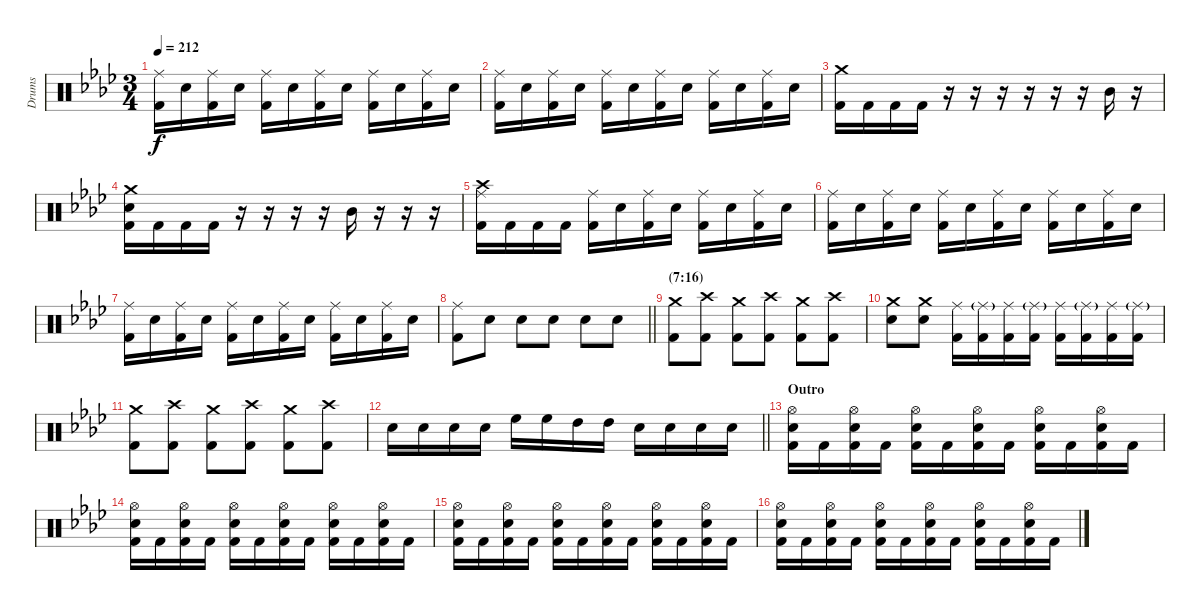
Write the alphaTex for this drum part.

\bracketExtendMode groupsimilarinstruments
\otherSystemsTrackNameOrientation horizontal
\track ("Guyot Begin-Benoit" "Drums") {instrument percussion}
\staff {score}
\articulation defaults
\ts (3 4)
\tempo 212
\clef neutral
\ks ab
("Ride (middle)"{acc forcenatural} "Kick (hit) 2"{acc forcenatural}).16{dy f beam Down} "Snare (hit) 2"{acc forcenatural}.16{beam Down} ("Ride (middle)"{acc forcenatural} "Kick (hit) 2"{acc forcenatural}).16{beam Down} "Snare (hit) 2"{acc forcenatural}.16{beam Down} ("Ride (middle)"{acc forcenatural} "Kick (hit) 2"{acc forcenatural}).16{beam Down} "Snare (hit) 2"{acc forcenatural}.16{beam Down} ("Ride (middle)"{acc forcenatural} "Kick (hit) 2"{acc forcenatural}).16{beam Down} "Snare (hit) 2"{acc forcenatural}.16{beam Down} ("Ride (middle)"{acc forcenatural} "Kick (hit) 2"{acc forcenatural}).16{beam Down} "Snare (hit) 2"{acc forcenatural}.16{beam Down} ("Ride (middle)"{acc forcenatural} "Kick (hit) 2"{acc forcenatural}).16{beam Down} "Snare (hit) 2"{acc forcenatural}.16{beam Down} |
("Ride (middle)"{acc forcenatural} "Kick (hit) 2"{acc forcenatural}).16{beam Down} "Snare (hit) 2"{acc forcenatural}.16{beam Down} ("Ride (middle)"{acc forcenatural} "Kick (hit) 2"{acc forcenatural}).16{beam Down} "Snare (hit) 2"{acc forcenatural}.16{beam Down} ("Ride (middle)"{acc forcenatural} "Kick (hit) 2"{acc forcenatural}).16{beam Down} "Snare (hit) 2"{acc forcenatural}.16{beam Down} ("Ride (middle)"{acc forcenatural} "Kick (hit) 2"{acc forcenatural}).16{beam Down} "Snare (hit) 2"{acc forcenatural}.16{beam Down} ("Ride (middle)"{acc forcenatural} "Kick (hit) 2"{acc forcenatural}).16{beam Down} "Snare (hit) 2"{acc forcenatural}.16{beam Down} ("Ride (middle)"{acc forcenatural} "Kick (hit) 2"{acc forcenatural}).16{beam Down} "Snare (hit) 2"{acc forcenatural}.16{beam Down} |
("Crash medium (hit)"{acc forcenatural} "Kick (hit) 2"{acc forcenatural}).16{beam Down} "Kick (hit) 2"{acc forcenatural}.16{beam Down} "Kick (hit) 2"{acc forcenatural}.16{beam Down} "Kick (hit) 2"{acc forcenatural}.16{beam Down} r.16{beam Down} r.16{beam Down} r.16{beam Down} r.16{beam Down} r.16{beam Down} r.16{beam Down} "Mid Tom (hit)"{acc forcenatural}.16{beam Down} r.16{beam Down} |
("Crash medium (hit)"{acc forcenatural} "Snare (hit) 2"{acc forcenatural} "Kick (hit) 2"{acc forcenatural}).16{beam Down} "Kick (hit) 2"{acc forcenatural}.16{beam Down} "Kick (hit) 2"{acc forcenatural}.16{beam Down} "Kick (hit) 2"{acc forcenatural}.16{beam Down} r.16{beam Down} r.16{beam Down} r.16{beam Down} r.16{beam Down} "Mid Tom (hit)"{acc forcenatural}.16{beam Down} r.16{beam Down} r.16{beam Down} r.16{beam Down} |
("Ride (middle)"{acc forcenatural} "Crash high (hit)"{acc forcenatural} "Kick (hit) 2"{acc forcenatural}).16{beam Down} "Kick (hit) 2"{acc forcenatural}.16{beam Down} "Kick (hit) 2"{acc forcenatural}.16{beam Down} "Kick (hit) 2"{acc forcenatural}.16{beam Down} ("Ride (middle)"{acc forcenatural} "Kick (hit) 2"{acc forcenatural}).16{beam Down} "Snare (hit) 2"{acc forcenatural}.16{beam Down} ("Ride (middle)"{acc forcenatural} "Kick (hit) 2"{acc forcenatural}).16{beam Down} "Snare (hit) 2"{acc forcenatural}.16{beam Down} ("Ride (middle)"{acc forcenatural} "Kick (hit) 2"{acc forcenatural}).16{beam Down} "Snare (hit) 2"{acc forcenatural}.16{beam Down} ("Ride (middle)"{acc forcenatural} "Kick (hit) 2"{acc forcenatural}).16{beam Down} "Snare (hit) 2"{acc forcenatural}.16{beam Down} |
("Ride (middle)"{acc forcenatural} "Kick (hit) 2"{acc forcenatural}).16{beam Down} "Snare (hit) 2"{acc forcenatural}.16{beam Down} ("Ride (middle)"{acc forcenatural} "Kick (hit) 2"{acc forcenatural}).16{beam Down} "Snare (hit) 2"{acc forcenatural}.16{beam Down} ("Ride (middle)"{acc forcenatural} "Kick (hit) 2"{acc forcenatural}).16{beam Down} "Snare (hit) 2"{acc forcenatural}.16{beam Down} ("Ride (middle)"{acc forcenatural} "Kick (hit) 2"{acc forcenatural}).16{beam Down} "Snare (hit) 2"{acc forcenatural}.16{beam Down} ("Ride (middle)"{acc forcenatural} "Kick (hit) 2"{acc forcenatural}).16{beam Down} "Snare (hit) 2"{acc forcenatural}.16{beam Down} ("Ride (middle)"{acc forcenatural} "Kick (hit) 2"{acc forcenatural}).16{beam Down} "Snare (hit) 2"{acc forcenatural}.16{beam Down} |
("Ride (middle)"{acc forcenatural} "Kick (hit) 2"{acc forcenatural}).16{beam Down} "Snare (hit) 2"{acc forcenatural}.16{beam Down} ("Ride (middle)"{acc forcenatural} "Kick (hit) 2"{acc forcenatural}).16{beam Down} "Snare (hit) 2"{acc forcenatural}.16{beam Down} ("Ride (middle)"{acc forcenatural} "Kick (hit) 2"{acc forcenatural}).16{beam Down} "Snare (hit) 2"{acc forcenatural}.16{beam Down} ("Ride (middle)"{acc forcenatural} "Kick (hit) 2"{acc forcenatural}).16{beam Down} "Snare (hit) 2"{acc forcenatural}.16{beam Down} ("Ride (middle)"{acc forcenatural} "Kick (hit) 2"{acc forcenatural}).16{beam Down} "Snare (hit) 2"{acc forcenatural}.16{beam Down} ("Ride (middle)"{acc forcenatural} "Kick (hit) 2"{acc forcenatural}).16{beam Down} "Snare (hit) 2"{acc forcenatural}.16{beam Down} |
\barLineRight lightlight
("Ride (middle)"{acc forcenatural} "Kick (hit) 2"{acc forcenatural}).8{beam Down} "Snare (hit) 2"{acc forcenatural}.8{beam Down} "Snare (hit) 2"{acc forcenatural}.8{beam Down} "Snare (hit) 2"{acc forcenatural}.8{beam Down} "Snare (hit) 2"{acc forcenatural}.8{beam Down} "Snare (hit) 2"{acc forcenatural}.8{beam Down} |
\section ("" "(7:16)")
("Crash medium (hit)"{acc forcenatural} "Kick (hit) 2"{acc forcenatural}).8{beam Down} ("Crash high (hit)"{acc forcenatural} "Kick (hit) 2"{acc forcenatural}).8{beam Down} ("Crash medium (hit)"{acc forcenatural} "Kick (hit) 2"{acc forcenatural}).8{beam Down} ("Crash high (hit)"{acc forcenatural} "Kick (hit) 2"{acc forcenatural}).8{beam Down} ("Crash medium (hit)"{acc forcenatural} "Kick (hit) 2"{acc forcenatural}).8{beam Down} ("Crash high (hit)"{acc forcenatural} "Kick (hit) 2"{acc forcenatural}).8{beam Down} |
("Crash medium (hit)"{acc forcenatural} "Snare (hit) 2"{acc forcenatural}).8{beam Down} ("Crash medium (hit)"{acc forcenatural} "Snare (hit) 2"{acc forcenatural}).8{beam Down} ("Ride (middle)"{acc forcenatural} "Kick (hit) 2"{acc forcenatural}).16{beam Down} ("Ride (middle)"{g acc forcenatural} "Kick (hit) 2"{acc forcenatural}).16{beam Down} ("Ride (middle)"{acc forcenatural} "Kick (hit) 2"{acc forcenatural}).16{beam Down} ("Ride (middle)"{g acc forcenatural} "Kick (hit) 2"{acc forcenatural}).16{beam Down} ("Ride (middle)"{acc forcenatural} "Kick (hit) 2"{acc forcenatural}).16{beam Down} ("Ride (middle)"{g acc forcenatural} "Kick (hit) 2"{acc forcenatural}).16{beam Down} ("Ride (middle)"{acc forcenatural} "Kick (hit) 2"{acc forcenatural}).16{beam Down} ("Ride (middle)"{g acc forcenatural} "Kick (hit) 2"{acc forcenatural}).16{beam Down} |
("Crash medium (hit)"{acc forcenatural} "Kick (hit) 2"{acc forcenatural}).8{beam Down} ("Crash high (hit)"{acc forcenatural} "Kick (hit) 2"{acc forcenatural}).8{beam Down} ("Crash medium (hit)"{acc forcenatural} "Kick (hit) 2"{acc forcenatural}).8{beam Down} ("Crash high (hit)"{acc forcenatural} "Kick (hit) 2"{acc forcenatural}).8{beam Down} ("Crash medium (hit)"{acc forcenatural} "Kick (hit) 2"{acc forcenatural}).8{beam Down} ("Crash high (hit)"{acc forcenatural} "Kick (hit) 2"{acc forcenatural}).8{beam Down} |
\barLineRight lightlight "Snare (hit) 2"{acc forcenatural}.16{beam Down} "Snare (hit) 2"{acc forcenatural}.16{beam Down} "Snare (hit) 2"{acc forcenatural}.16{beam Down} "Snare (hit) 2"{acc forcenatural}.16{beam Down} "High Floor Tom (hit)"{acc forcenatural}.16{beam Down} "High Floor Tom (hit)"{acc forcenatural}.16{beam Down} "High Tom (hit)"{acc forcenatural}.16{beam Down} "High Tom (hit)"{acc forcenatural}.16{beam Down} "Snare (hit) 2"{acc forcenatural}.16{beam Down} "Snare (hit) 2"{acc forcenatural}.16{beam Down} "Snare (hit) 2"{acc forcenatural}.16{beam Down} "Snare (hit) 2"{acc forcenatural}.16{beam Down}
|
\section ("" "Outro")
("Hi-Hat (open)"{acc forcenatural} "Snare (hit) 2"{acc forcenatural} "Kick (hit) 2"{acc forcenatural}).16{beam Down} "Kick (hit) 2"{acc forcenatural}.16{beam Down} ("Hi-Hat (open)"{acc forcenatural} "Snare (hit) 2"{acc forcenatural} "Kick (hit) 2"{acc forcenatural}).16{beam Down} "Kick (hit) 2"{acc forcenatural}.16{beam Down} ("Hi-Hat (open)"{acc forcenatural} "Snare (hit) 2"{acc forcenatural} "Kick (hit) 2"{acc forcenatural}).16{beam Down} "Kick (hit) 2"{acc forcenatural}.16{beam Down} ("Hi-Hat (open)"{acc forcenatural} "Snare (hit) 2"{acc forcenatural} "Kick (hit) 2"{acc forcenatural}).16{beam Down} "Kick (hit) 2"{acc forcenatural}.16{beam Down} ("Hi-Hat (open)"{acc forcenatural} "Snare (hit) 2"{acc forcenatural} "Kick (hit) 2"{acc forcenatural}).16{beam Down} "Kick (hit) 2"{acc forcenatural}.16{beam Down} ("Hi-Hat (open)"{acc forcenatural} "Snare (hit) 2"{acc forcenatural} "Kick (hit) 2"{acc forcenatural}).16{beam Down} "Kick (hit) 2"{acc forcenatural}.16{beam Down} |
("Hi-Hat (open)"{acc forcenatural} "Snare (hit) 2"{acc forcenatural} "Kick (hit) 2"{acc forcenatural}).16{beam Down} "Kick (hit) 2"{acc forcenatural}.16{beam Down} ("Hi-Hat (open)"{acc forcenatural} "Snare (hit) 2"{acc forcenatural} "Kick (hit) 2"{acc forcenatural}).16{beam Down} "Kick (hit) 2"{acc forcenatural}.16{beam Down} ("Hi-Hat (open)"{acc forcenatural} "Snare (hit) 2"{acc forcenatural} "Kick (hit) 2"{acc forcenatural}).16{beam Down} "Kick (hit) 2"{acc forcenatural}.16{beam Down} ("Hi-Hat (open)"{acc forcenatural} "Snare (hit) 2"{acc forcenatural} "Kick (hit) 2"{acc forcenatural}).16{beam Down} "Kick (hit) 2"{acc forcenatural}.16{beam Down} ("Hi-Hat (open)"{acc forcenatural} "Snare (hit) 2"{acc forcenatural} "Kick (hit) 2"{acc forcenatural}).16{beam Down} "Kick (hit) 2"{acc forcenatural}.16{beam Down} ("Hi-Hat (open)"{acc forcenatural} "Snare (hit) 2"{acc forcenatural} "Kick (hit) 2"{acc forcenatural}).16{beam Down} "Kick (hit) 2"{acc forcenatural}.16{beam Down} |
("Hi-Hat (open)"{acc forcenatural} "Snare (hit) 2"{acc forcenatural} "Kick (hit) 2"{acc forcenatural}).16{beam Down} "Kick (hit) 2"{acc forcenatural}.16{beam Down} ("Hi-Hat (open)"{acc forcenatural} "Snare (hit) 2"{acc forcenatural} "Kick (hit) 2"{acc forcenatural}).16{beam Down} "Kick (hit) 2"{acc forcenatural}.16{beam Down} ("Hi-Hat (open)"{acc forcenatural} "Snare (hit) 2"{acc forcenatural} "Kick (hit) 2"{acc forcenatural}).16{beam Down} "Kick (hit) 2"{acc forcenatural}.16{beam Down} ("Hi-Hat (open)"{acc forcenatural} "Snare (hit) 2"{acc forcenatural} "Kick (hit) 2"{acc forcenatural}).16{beam Down} "Kick (hit) 2"{acc forcenatural}.16{beam Down} ("Hi-Hat (open)"{acc forcenatural} "Snare (hit) 2"{acc forcenatural} "Kick (hit) 2"{acc forcenatural}).16{beam Down} "Kick (hit) 2"{acc forcenatural}.16{beam Down} ("Hi-Hat (open)"{acc forcenatural} "Snare (hit) 2"{acc forcenatural} "Kick (hit) 2"{acc forcenatural}).16{beam Down} "Kick (hit) 2"{acc forcenatural}.16{beam Down} |
("Hi-Hat (open)"{acc forcenatural} "Snare (hit) 2"{acc forcenatural} "Kick (hit) 2"{acc forcenatural}).16{beam Down} "Kick (hit) 2"{acc forcenatural}.16{beam Down} ("Hi-Hat (open)"{acc forcenatural} "Snare (hit) 2"{acc forcenatural} "Kick (hit) 2"{acc forcenatural}).16{beam Down} "Kick (hit) 2"{acc forcenatural}.16{beam Down} ("Hi-Hat (open)"{acc forcenatural} "Snare (hit) 2"{acc forcenatural} "Kick (hit) 2"{acc forcenatural}).16{beam Down} "Kick (hit) 2"{acc forcenatural}.16{beam Down} ("Hi-Hat (open)"{acc forcenatural} "Snare (hit) 2"{acc forcenatural} "Kick (hit) 2"{acc forcenatural}).16{beam Down} "Kick (hit) 2"{acc forcenatural}.16{beam Down} ("Hi-Hat (open)"{acc forcenatural} "Snare (hit) 2"{acc forcenatural} "Kick (hit) 2"{acc forcenatural}).16{beam Down} "Kick (hit) 2"{acc forcenatural}.16{beam Down} ("Hi-Hat (open)"{acc forcenatural} "Snare (hit) 2"{acc forcenatural} "Kick (hit) 2"{acc forcenatural}).16{beam Down} "Kick (hit) 2"{acc forcenatural}.16{beam Down}
